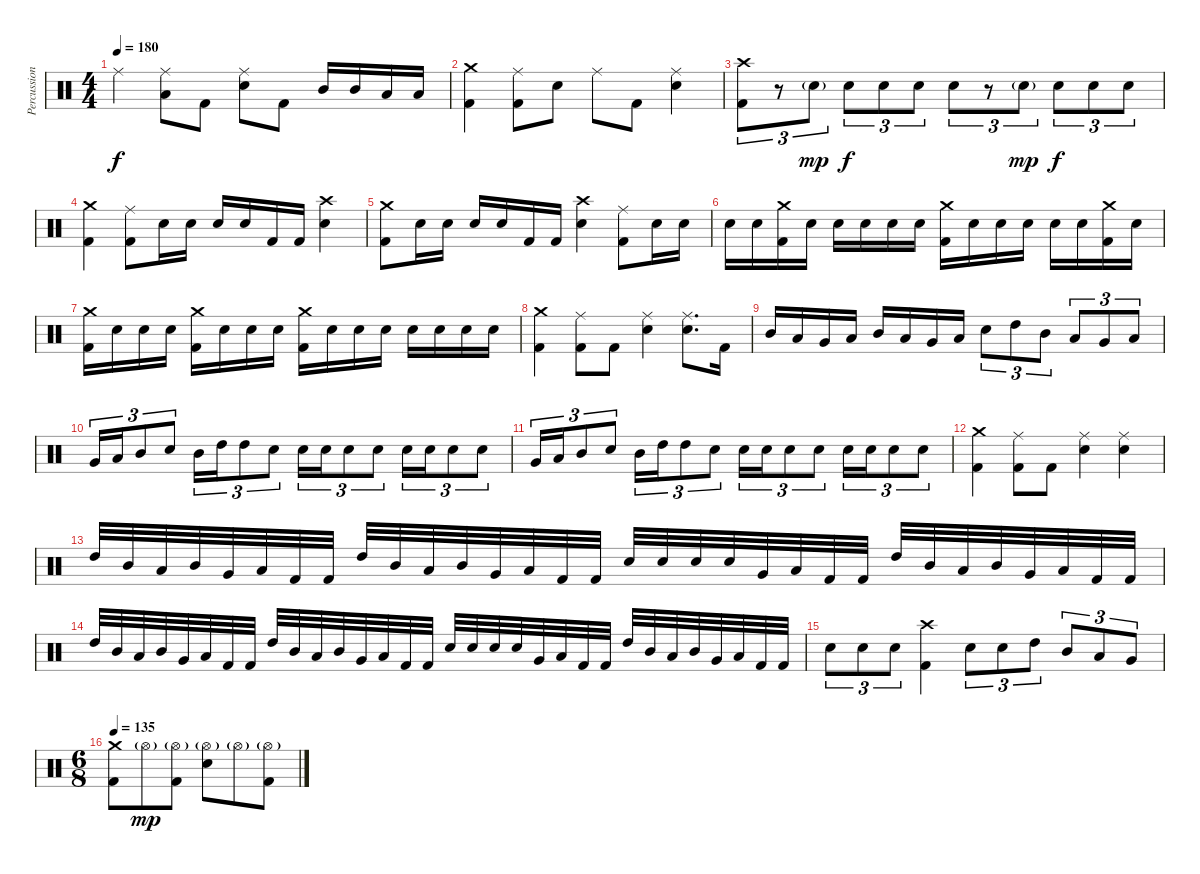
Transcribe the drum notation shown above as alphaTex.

\track ("Percussion" "Percussion") {instrument percussion}
\staff {score}
\articulation defaults
\ts (4 4)
\tempo 180
\clef neutral
\ks c "Ride (middle)".4{dy f}
("Ride (middle)" "Low Tom (hit)").8 "Kick (hit) 2".8 ("Ride (middle)" "Electric Snare (hit)").8 "Kick (hit) 2".8 "Mid Tom (hit)".16 "Mid Tom (hit)".16 "Low Tom (hit)".16 "Low Tom (hit)".16 |
("Crash medium (hit)" "Kick (hit) 2").4 ("Ride (middle)" "Kick (hit) 2").8 "Electric Snare (hit)".8 "Ride (middle)".8 "Kick (hit) 2".8 ("Ride (middle)" "Electric Snare (hit)").4 |
("Crash high (hit)" "Kick (hit) 2").8{tu (3 2)} r.8{tu (3 2)} "Electric Snare (hit)"{g}.8{tu (3 2) dy mp} "Electric Snare (hit)".8{tu (3 2) dy f} "Electric Snare (hit)".8{tu (3 2)} "Electric Snare (hit)".8{tu (3 2)} "Electric Snare (hit)".8{tu (3 2)} r.8{tu (3 2)} "Electric Snare (hit)"{g}.8{tu (3 2) dy mp} "Electric Snare (hit)".8{tu (3 2) dy f} "Electric Snare (hit)".8{tu (3 2)} "Electric Snare (hit)".8{tu (3 2)} |
("Crash medium (hit)" "Kick (hit) 2").4 ("Ride (middle)" "Kick (hit) 2").8 "Electric Snare (hit)".16 "Electric Snare (hit)".16 "Electric Snare (hit)".16 "Electric Snare (hit)".16 "Kick (hit) 2".16 "Kick (hit) 2".16 ("Crash high (hit)" "Electric Snare (hit)").4 |
("Crash medium (hit)" "Kick (hit) 2").8 "Electric Snare (hit)".16 "Electric Snare (hit)".16 "Electric Snare (hit)".16 "Electric Snare (hit)".16 "Kick (hit) 2".16 "Kick (hit) 2".16 ("Crash high (hit)" "Electric Snare (hit)").4 ("Ride (middle)" "Kick (hit) 2").8 "Electric Snare (hit)".16 "Electric Snare (hit)".16 |
"Electric Snare (hit)".16 "Electric Snare (hit)".16 ("Crash medium (hit)" "Kick (hit) 2").16 "Electric Snare (hit)".16 "Electric Snare (hit)".16 "Electric Snare (hit)".16 "Electric Snare (hit)".16 "Electric Snare (hit)".16 ("Crash medium (hit)" "Kick (hit) 2").16 "Electric Snare (hit)".16 "Electric Snare (hit)".16 "Electric Snare (hit)".16 "Electric Snare (hit)".16 "Electric Snare (hit)".16 ("Crash medium (hit)" "Kick (hit) 2").16 "Electric Snare (hit)".16 |
("Crash medium (hit)" "Kick (hit) 2").16 "Electric Snare (hit)".16 "Electric Snare (hit)".16 "Electric Snare (hit)".16 ("Crash medium (hit)" "Kick (hit) 2").16 "Electric Snare (hit)".16 "Electric Snare (hit)".16 "Electric Snare (hit)".16 ("Crash medium (hit)" "Kick (hit) 2").16 "Electric Snare (hit)".16 "Electric Snare (hit)".16 "Electric Snare (hit)".16 "Electric Snare (hit)".16 "Electric Snare (hit)".16 "Electric Snare (hit)".16 "Electric Snare (hit)".16 |
("Crash medium (hit)" "Kick (hit) 2").4 ("Ride (middle)" "Kick (hit) 2").8 "Kick (hit) 2".8 ("Ride (middle)" "Electric Snare (hit)").4 ("Ride (middle)" "Electric Snare (hit)").8{d} "Kick (hit) 2".16 |
"Mid Tom (hit)".16 "Low Tom (hit)".16 "Very Low Tom (hit)".16 "Low Tom (hit)".16 "Mid Tom (hit)".16 "Low Tom (hit)".16 "Very Low Tom (hit)".16 "Low Tom (hit)".16 "Electric Snare (hit)".8{tu (3 2)} "High Tom (hit)".8{tu (3 2)} "Mid Tom (hit)".8{tu (3 2)} "Low Tom (hit)".8{tu (3 2)} "Very Low Tom (hit)".8{tu (3 2)} "Low Floor Tom (hit)".8{tu (3 2)} |
"Very Low Tom (hit)".16{tu (3 2)} "Low Tom (hit)".16{tu (3 2)} "Mid Tom (hit)".8{tu (3 2)} "Electric Snare (hit)".8{tu (3 2)} "Mid Tom (hit)".16{tu (3 2)} "High Tom (hit)".16{tu (3 2)} "High Tom (hit)".8{tu (3 2)} "Electric Snare (hit)".8{tu (3 2)} "Electric Snare (hit)".16{tu (3 2)} "Electric Snare (hit)".16{tu (3 2)} "Electric Snare (hit)".8{tu (3 2)} "Electric Snare (hit)".8{tu (3 2)} "Electric Snare (hit)".16{tu (3 2)} "Electric Snare (hit)".16{tu (3 2)} "Electric Snare (hit)".8{tu (3 2)} "Electric Snare (hit)".8{tu (3 2)} |
"Very Low Tom (hit)".16{tu (3 2)} "Low Tom (hit)".16{tu (3 2)} "Mid Tom (hit)".8{tu (3 2)} "Electric Snare (hit)".8{tu (3 2)} "Mid Tom (hit)".16{tu (3 2)} "High Tom (hit)".16{tu (3 2)} "High Tom (hit)".8{tu (3 2)} "Electric Snare (hit)".8{tu (3 2)} "Electric Snare (hit)".16{tu (3 2)} "Electric Snare (hit)".16{tu (3 2)} "Electric Snare (hit)".8{tu (3 2)} "Electric Snare (hit)".8{tu (3 2)} "Electric Snare (hit)".16{tu (3 2)} "Electric Snare (hit)".16{tu (3 2)} "Electric Snare (hit)".8{tu (3 2)} "Electric Snare (hit)".8{tu (3 2)} |
("Crash medium (hit)" "Kick (hit) 2").4 ("Ride (middle)" "Kick (hit) 2").8 "Kick (hit) 2".8 ("Ride (middle)" "Electric Snare (hit)").4 ("Ride (middle)" "Electric Snare (hit)").4 |
"High Tom (hit)".32 "Mid Tom (hit)".32 "Low Tom (hit)".32 "Mid Tom (hit)".32 "Very Low Tom (hit)".32 "Low Tom (hit)".32 "Kick (hit) 2".32 "Kick (hit) 2".32 "High Tom (hit)".32 "Mid Tom (hit)".32 "Low Tom (hit)".32 "Mid Tom (hit)".32 "Very Low Tom (hit)".32 "Low Tom (hit)".32 "Kick (hit) 2".32 "Kick (hit) 2".32 "Electric Snare (hit)".32 "Electric Snare (hit)".32 "Electric Snare (hit)".32 "Electric Snare (hit)".32 "Very Low Tom (hit)".32 "Low Tom (hit)".32 "Kick (hit) 2".32 "Kick (hit) 2".32 "High Tom (hit)".32 "Mid Tom (hit)".32 "Low Tom (hit)".32 "Mid Tom (hit)".32 "Very Low Tom (hit)".32 "Low Tom (hit)".32 "Kick (hit) 2".32 "Kick (hit) 2".32 |
"High Tom (hit)".32 "Mid Tom (hit)".32 "Low Tom (hit)".32 "Mid Tom (hit)".32 "Very Low Tom (hit)".32 "Low Tom (hit)".32 "Kick (hit) 2".32 "Kick (hit) 2".32 "High Tom (hit)".32 "Mid Tom (hit)".32 "Low Tom (hit)".32 "Mid Tom (hit)".32 "Very Low Tom (hit)".32 "Low Tom (hit)".32 "Kick (hit) 2".32 "Kick (hit) 2".32 "Electric Snare (hit)".32 "Electric Snare (hit)".32 "Electric Snare (hit)".32 "Electric Snare (hit)".32 "Very Low Tom (hit)".32 "Low Tom (hit)".32 "Kick (hit) 2".32 "Kick (hit) 2".32 "High Tom (hit)".32 "Mid Tom (hit)".32 "Low Tom (hit)".32 "Mid Tom (hit)".32 "Very Low Tom (hit)".32 "Low Tom (hit)".32 "Kick (hit) 2".32 "Kick (hit) 2".32 |
"Electric Snare (hit)".8{tu (3 2)} "Electric Snare (hit)".8{tu (3 2)} "Electric Snare (hit)".8{tu (3 2)} ("Crash high (hit)" "Kick (hit) 2").4 "Electric Snare (hit)".8{tu (3 2)} "Electric Snare (hit)".8{tu (3 2)} "High Tom (hit)".8{tu (3 2)} "Mid Tom (hit)".8{tu (3 2)} "Low Tom (hit)".8{tu (3 2)} "Very Low Tom (hit)".8{tu (3 2)} |
\ts (6 8)
\tempo 135
("Crash medium (hit)" "Kick (hit) 2").8 "Hi-Hat (open)"{g}.8{dy mp} ("Hi-Hat (open)"{g} "Kick (hit) 2").8 ("Hi-Hat (open)"{g} "Electric Snare (hit)").8 "Hi-Hat (open)"{g}.8 ("Hi-Hat (open)"{g} "Kick (hit) 2").8
